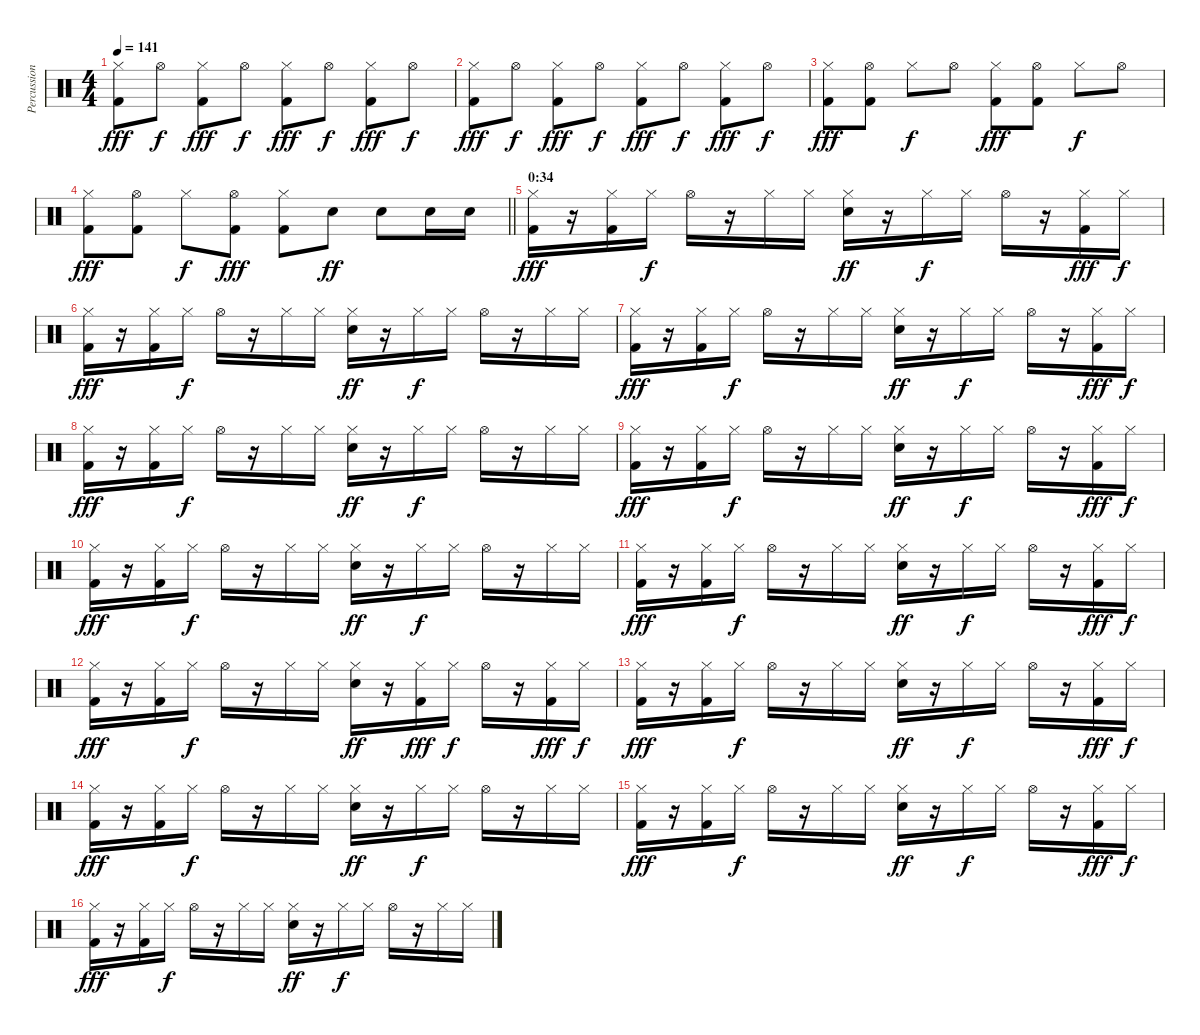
\track ("Percussion" "Percussion") {instrument percussion}
\staff {score}
\articulation defaults
\ts (4 4)
\tempo 141
\clef neutral
\ks c
("Hi-Hat (closed)" "Kick (hit) 2").8{dy fff} "Hi-Hat (open)".8{dy f} ("Hi-Hat (closed)" "Kick (hit) 2").8{dy fff} "Hi-Hat (open)".8{dy f} ("Hi-Hat (closed)" "Kick (hit) 2").8{dy fff} "Hi-Hat (open)".8{dy f} ("Hi-Hat (closed)" "Kick (hit) 2").8{dy fff} "Hi-Hat (open)".8{dy f} |
("Hi-Hat (closed)" "Kick (hit) 2").8{dy fff} "Hi-Hat (open)".8{dy f} ("Hi-Hat (closed)" "Kick (hit) 2").8{dy fff} "Hi-Hat (open)".8{dy f} ("Hi-Hat (closed)" "Kick (hit) 2").8{dy fff} "Hi-Hat (open)".8{dy f} ("Hi-Hat (closed)" "Kick (hit) 2").8{dy fff} "Hi-Hat (open)".8{dy f} |
("Hi-Hat (closed)" "Kick (hit) 2").8{dy fff} ("Hi-Hat (open)" "Kick (hit) 2").8 "Hi-Hat (closed)".8{dy f} "Hi-Hat (open)".8 ("Hi-Hat (closed)" "Kick (hit) 2").8{dy fff} ("Hi-Hat (open)" "Kick (hit) 2").8 "Hi-Hat (closed)".8{dy f} "Hi-Hat (open)".8 |
\barLineRight lightlight
("Hi-Hat (closed)" "Kick (hit) 2").8{dy fff} ("Hi-Hat (open)" "Kick (hit) 2").8 "Hi-Hat (closed)".8{dy f} ("Hi-Hat (open)" "Kick (hit) 2").8{dy fff} ("Hi-Hat (closed)" "Kick (hit) 2").8 "Snare (hit) 2".8{dy ff} "Snare (hit) 2".8 "Snare (hit) 2".16 "Snare (hit) 2".16 |
\section ("" "0:34")
("Hi-Hat (closed)" "Kick (hit) 2").16{dy fff} r.16 ("Hi-Hat (closed)" "Kick (hit) 2").16 "Hi-Hat (closed)".16{dy f} "Hi-Hat (open)".16 r.16 "Hi-Hat (closed)".16 "Hi-Hat (closed)".16 ("Hi-Hat (closed)" "Snare (hit) 2").16{dy ff} r.16 "Hi-Hat (closed)".16{dy f} "Hi-Hat (closed)".16 "Hi-Hat (open)".16 r.16 ("Hi-Hat (closed)" "Kick (hit) 2").16{dy fff} "Hi-Hat (closed)".16{dy f} |
("Hi-Hat (closed)" "Kick (hit) 2").16{dy fff} r.16 ("Hi-Hat (closed)" "Kick (hit) 2").16 "Hi-Hat (closed)".16{dy f} "Hi-Hat (open)".16 r.16 "Hi-Hat (closed)".16 "Hi-Hat (closed)".16 ("Hi-Hat (closed)" "Snare (hit) 2").16{dy ff} r.16 "Hi-Hat (closed)".16{dy f} "Hi-Hat (closed)".16 "Hi-Hat (open)".16 r.16 "Hi-Hat (closed)".16 "Hi-Hat (closed)".16 |
("Hi-Hat (closed)" "Kick (hit) 2").16{dy fff} r.16 ("Hi-Hat (closed)" "Kick (hit) 2").16 "Hi-Hat (closed)".16{dy f} "Hi-Hat (open)".16 r.16 "Hi-Hat (closed)".16 "Hi-Hat (closed)".16 ("Hi-Hat (closed)" "Snare (hit) 2").16{dy ff} r.16 "Hi-Hat (closed)".16{dy f} "Hi-Hat (closed)".16 "Hi-Hat (open)".16 r.16 ("Hi-Hat (closed)" "Kick (hit) 2").16{dy fff} "Hi-Hat (closed)".16{dy f} |
("Hi-Hat (closed)" "Kick (hit) 2").16{dy fff} r.16 ("Hi-Hat (closed)" "Kick (hit) 2").16 "Hi-Hat (closed)".16{dy f} "Hi-Hat (open)".16 r.16 "Hi-Hat (closed)".16 "Hi-Hat (closed)".16 ("Hi-Hat (closed)" "Snare (hit) 2").16{dy ff} r.16 "Hi-Hat (closed)".16{dy f} "Hi-Hat (closed)".16 "Hi-Hat (open)".16 r.16 "Hi-Hat (closed)".16 "Hi-Hat (closed)".16 |
("Hi-Hat (closed)" "Kick (hit) 2").16{dy fff} r.16 ("Hi-Hat (closed)" "Kick (hit) 2").16 "Hi-Hat (closed)".16{dy f} "Hi-Hat (open)".16 r.16 "Hi-Hat (closed)".16 "Hi-Hat (closed)".16 ("Hi-Hat (closed)" "Snare (hit) 2").16{dy ff} r.16 "Hi-Hat (closed)".16{dy f} "Hi-Hat (closed)".16 "Hi-Hat (open)".16 r.16 ("Hi-Hat (closed)" "Kick (hit) 2").16{dy fff} "Hi-Hat (closed)".16{dy f} |
("Hi-Hat (closed)" "Kick (hit) 2").16{dy fff} r.16 ("Hi-Hat (closed)" "Kick (hit) 2").16 "Hi-Hat (closed)".16{dy f} "Hi-Hat (open)".16 r.16 "Hi-Hat (closed)".16 "Hi-Hat (closed)".16 ("Hi-Hat (closed)" "Snare (hit) 2").16{dy ff} r.16 "Hi-Hat (closed)".16{dy f} "Hi-Hat (closed)".16 "Hi-Hat (open)".16 r.16 "Hi-Hat (closed)".16 "Hi-Hat (closed)".16 |
("Hi-Hat (closed)" "Kick (hit) 2").16{dy fff} r.16 ("Hi-Hat (closed)" "Kick (hit) 2").16 "Hi-Hat (closed)".16{dy f} "Hi-Hat (open)".16 r.16 "Hi-Hat (closed)".16 "Hi-Hat (closed)".16 ("Hi-Hat (closed)" "Snare (hit) 2").16{dy ff} r.16 "Hi-Hat (closed)".16{dy f} "Hi-Hat (closed)".16 "Hi-Hat (open)".16 r.16 ("Hi-Hat (closed)" "Kick (hit) 2").16{dy fff} "Hi-Hat (closed)".16{dy f} |
("Hi-Hat (closed)" "Kick (hit) 2").16{dy fff} r.16 ("Hi-Hat (closed)" "Kick (hit) 2").16 "Hi-Hat (closed)".16{dy f} "Hi-Hat (open)".16 r.16 "Hi-Hat (closed)".16 "Hi-Hat (closed)".16 ("Hi-Hat (closed)" "Snare (hit) 2").16{dy ff} r.16 ("Hi-Hat (closed)" "Kick (hit) 2").16{dy fff} "Hi-Hat (closed)".16{dy f} "Hi-Hat (open)".16 r.16 ("Hi-Hat (closed)" "Kick (hit) 2").16{dy fff} "Hi-Hat (closed)".16{dy f} |
("Hi-Hat (closed)" "Kick (hit) 2").16{dy fff} r.16 ("Hi-Hat (closed)" "Kick (hit) 2").16 "Hi-Hat (closed)".16{dy f} "Hi-Hat (open)".16 r.16 "Hi-Hat (closed)".16 "Hi-Hat (closed)".16 ("Hi-Hat (closed)" "Snare (hit) 2").16{dy ff} r.16 "Hi-Hat (closed)".16{dy f} "Hi-Hat (closed)".16 "Hi-Hat (open)".16 r.16 ("Hi-Hat (closed)" "Kick (hit) 2").16{dy fff} "Hi-Hat (closed)".16{dy f} |
("Hi-Hat (closed)" "Kick (hit) 2").16{dy fff} r.16 ("Hi-Hat (closed)" "Kick (hit) 2").16 "Hi-Hat (closed)".16{dy f} "Hi-Hat (open)".16 r.16 "Hi-Hat (closed)".16 "Hi-Hat (closed)".16 ("Hi-Hat (closed)" "Snare (hit) 2").16{dy ff} r.16 "Hi-Hat (closed)".16{dy f} "Hi-Hat (closed)".16 "Hi-Hat (open)".16 r.16 "Hi-Hat (closed)".16 "Hi-Hat (closed)".16 |
("Hi-Hat (closed)" "Kick (hit) 2").16{dy fff} r.16 ("Hi-Hat (closed)" "Kick (hit) 2").16 "Hi-Hat (closed)".16{dy f} "Hi-Hat (open)".16 r.16 "Hi-Hat (closed)".16 "Hi-Hat (closed)".16 ("Hi-Hat (closed)" "Snare (hit) 2").16{dy ff} r.16 "Hi-Hat (closed)".16{dy f} "Hi-Hat (closed)".16 "Hi-Hat (open)".16 r.16 ("Hi-Hat (closed)" "Kick (hit) 2").16{dy fff} "Hi-Hat (closed)".16{dy f} |
("Hi-Hat (closed)" "Kick (hit) 2").16{dy fff} r.16 ("Hi-Hat (closed)" "Kick (hit) 2").16 "Hi-Hat (closed)".16{dy f} "Hi-Hat (open)".16 r.16 "Hi-Hat (closed)".16 "Hi-Hat (closed)".16 ("Hi-Hat (closed)" "Snare (hit) 2").16{dy ff} r.16 "Hi-Hat (closed)".16{dy f} "Hi-Hat (closed)".16 "Hi-Hat (open)".16 r.16 "Hi-Hat (closed)".16 "Hi-Hat (closed)".16
